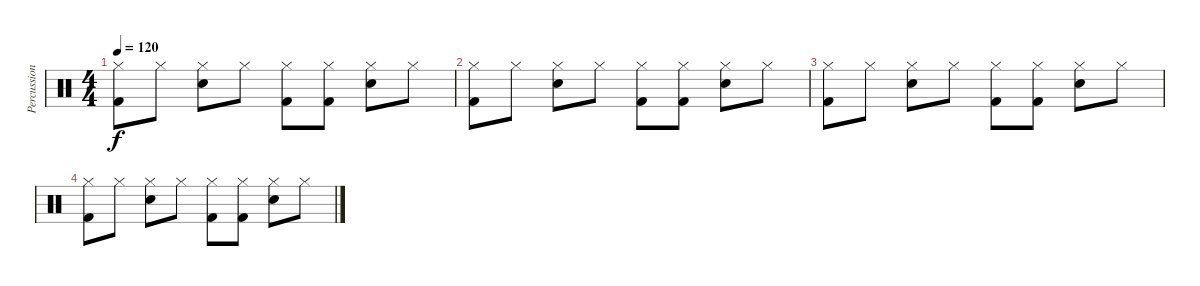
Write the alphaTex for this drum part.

\track ("Percussion" "Percussion") {instrument percussion}
\staff {score}
\articulation defaults
\ts (4 4)
\tempo 120
\clef neutral
\ks c
("Hi-Hat (closed)" "Kick (hit) 2").8{dy f} "Hi-Hat (closed)".8 ("Hi-Hat (closed)" "Electric Snare (hit)").8 "Hi-Hat (closed)".8 ("Hi-Hat (closed)" "Kick (hit) 2").8 ("Hi-Hat (closed)" "Kick (hit) 2").8 ("Hi-Hat (closed)" "Electric Snare (hit)").8 "Hi-Hat (closed)".8 |
("Hi-Hat (closed)" "Kick (hit) 2").8 "Hi-Hat (closed)".8 ("Hi-Hat (closed)" "Electric Snare (hit)").8 "Hi-Hat (closed)".8 ("Hi-Hat (closed)" "Kick (hit) 2").8 ("Hi-Hat (closed)" "Kick (hit) 2").8 ("Hi-Hat (closed)" "Electric Snare (hit)").8 "Hi-Hat (closed)".8 |
("Hi-Hat (closed)" "Kick (hit) 2").8 "Hi-Hat (closed)".8 ("Hi-Hat (closed)" "Electric Snare (hit)").8 "Hi-Hat (closed)".8 ("Hi-Hat (closed)" "Kick (hit) 2").8 ("Hi-Hat (closed)" "Kick (hit) 2").8 ("Hi-Hat (closed)" "Electric Snare (hit)").8 "Hi-Hat (closed)".8 |
("Hi-Hat (closed)" "Kick (hit) 2").8 "Hi-Hat (closed)".8 ("Hi-Hat (closed)" "Electric Snare (hit)").8 "Hi-Hat (closed)".8 ("Hi-Hat (closed)" "Kick (hit) 2").8 ("Hi-Hat (closed)" "Kick (hit) 2").8 ("Hi-Hat (closed)" "Electric Snare (hit)").8 "Hi-Hat (closed)".8
